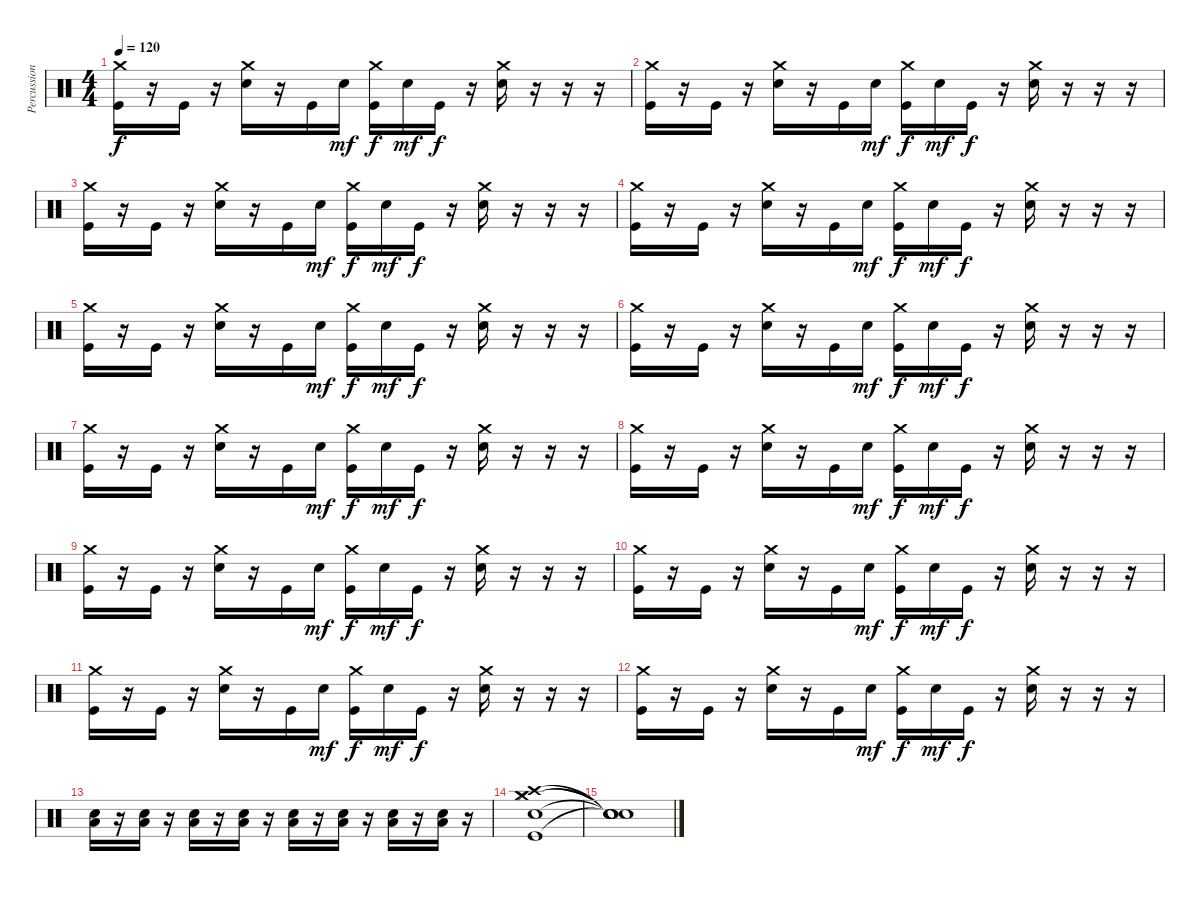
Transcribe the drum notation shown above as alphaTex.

\track ("Percussions" "Percussion") {instrument percussion}
\staff {score}
\articulation defaults
\ts (4 4)
\tempo 120
\clef neutral
\ks c
("Kick (hit)" "Crash medium (hit)").16{dy f} r.16 "Kick (hit)".16 r.16 ("Electric Snare (hit)" "Crash medium (hit)").16 r.16 "Kick (hit)".16 "Electric Snare (hit)".16{dy mf} ("Kick (hit)" "Crash medium (hit)").16{dy f} "Electric Snare (hit)".16{dy mf} "Kick (hit)".16{dy f} r.16 ("Electric Snare (hit)" "Crash medium (hit)").16 r.16 r.16 r.16 |
("Kick (hit)" "Crash medium (hit)").16 r.16 "Kick (hit)".16 r.16 ("Electric Snare (hit)" "Crash medium (hit)").16 r.16 "Kick (hit)".16 "Electric Snare (hit)".16{dy mf} ("Kick (hit)" "Crash medium (hit)").16{dy f} "Electric Snare (hit)".16{dy mf} "Kick (hit)".16{dy f} r.16 ("Electric Snare (hit)" "Crash medium (hit)").16 r.16 r.16 r.16 |
("Kick (hit)" "Crash medium (hit)").16 r.16 "Kick (hit)".16 r.16 ("Electric Snare (hit)" "Crash medium (hit)").16 r.16 "Kick (hit)".16 "Electric Snare (hit)".16{dy mf} ("Kick (hit)" "Crash medium (hit)").16{dy f} "Electric Snare (hit)".16{dy mf} "Kick (hit)".16{dy f} r.16 ("Electric Snare (hit)" "Crash medium (hit)").16 r.16 r.16 r.16 |
("Kick (hit)" "Crash medium (hit)").16 r.16 "Kick (hit)".16 r.16 ("Electric Snare (hit)" "Crash medium (hit)").16 r.16 "Kick (hit)".16 "Electric Snare (hit)".16{dy mf} ("Kick (hit)" "Crash medium (hit)").16{dy f} "Electric Snare (hit)".16{dy mf} "Kick (hit)".16{dy f} r.16 ("Electric Snare (hit)" "Crash medium (hit)").16 r.16 r.16 r.16 |
("Kick (hit)" "Crash medium (hit)").16 r.16 "Kick (hit)".16 r.16 ("Electric Snare (hit)" "Crash medium (hit)").16 r.16 "Kick (hit)".16 "Electric Snare (hit)".16{dy mf} ("Kick (hit)" "Crash medium (hit)").16{dy f} "Electric Snare (hit)".16{dy mf} "Kick (hit)".16{dy f} r.16 ("Electric Snare (hit)" "Crash medium (hit)").16 r.16 r.16 r.16 |
("Kick (hit)" "Crash medium (hit)").16 r.16 "Kick (hit)".16 r.16 ("Electric Snare (hit)" "Crash medium (hit)").16 r.16 "Kick (hit)".16 "Electric Snare (hit)".16{dy mf} ("Kick (hit)" "Crash medium (hit)").16{dy f} "Electric Snare (hit)".16{dy mf} "Kick (hit)".16{dy f} r.16 ("Electric Snare (hit)" "Crash medium (hit)").16 r.16 r.16 r.16 |
("Kick (hit)" "Crash medium (hit)").16 r.16 "Kick (hit)".16 r.16 ("Electric Snare (hit)" "Crash medium (hit)").16 r.16 "Kick (hit)".16 "Electric Snare (hit)".16{dy mf} ("Kick (hit)" "Crash medium (hit)").16{dy f} "Electric Snare (hit)".16{dy mf} "Kick (hit)".16{dy f} r.16 ("Electric Snare (hit)" "Crash medium (hit)").16 r.16 r.16 r.16 |
("Kick (hit)" "Crash medium (hit)").16 r.16 "Kick (hit)".16 r.16 ("Electric Snare (hit)" "Crash medium (hit)").16 r.16 "Kick (hit)".16 "Electric Snare (hit)".16{dy mf} ("Kick (hit)" "Crash medium (hit)").16{dy f} "Electric Snare (hit)".16{dy mf} "Kick (hit)".16{dy f} r.16 ("Electric Snare (hit)" "Crash medium (hit)").16 r.16 r.16 r.16 |
("Kick (hit)" "Crash medium (hit)").16 r.16 "Kick (hit)".16 r.16 ("Electric Snare (hit)" "Crash medium (hit)").16 r.16 "Kick (hit)".16 "Electric Snare (hit)".16{dy mf} ("Kick (hit)" "Crash medium (hit)").16{dy f} "Electric Snare (hit)".16{dy mf} "Kick (hit)".16{dy f} r.16 ("Electric Snare (hit)" "Crash medium (hit)").16 r.16 r.16 r.16 |
("Kick (hit)" "Crash medium (hit)").16 r.16 "Kick (hit)".16 r.16 ("Electric Snare (hit)" "Crash medium (hit)").16 r.16 "Kick (hit)".16 "Electric Snare (hit)".16{dy mf} ("Kick (hit)" "Crash medium (hit)").16{dy f} "Electric Snare (hit)".16{dy mf} "Kick (hit)".16{dy f} r.16 ("Electric Snare (hit)" "Crash medium (hit)").16 r.16 r.16 r.16 |
("Kick (hit)" "Crash medium (hit)").16 r.16 "Kick (hit)".16 r.16 ("Electric Snare (hit)" "Crash medium (hit)").16 r.16 "Kick (hit)".16 "Electric Snare (hit)".16{dy mf} ("Kick (hit)" "Crash medium (hit)").16{dy f} "Electric Snare (hit)".16{dy mf} "Kick (hit)".16{dy f} r.16 ("Electric Snare (hit)" "Crash medium (hit)").16 r.16 r.16 r.16 |
("Kick (hit)" "Crash medium (hit)").16 r.16 "Kick (hit)".16 r.16 ("Electric Snare (hit)" "Crash medium (hit)").16 r.16 "Kick (hit)".16 "Electric Snare (hit)".16{dy mf} ("Kick (hit)" "Crash medium (hit)").16{dy f} "Electric Snare (hit)".16{dy mf} "Kick (hit)".16{dy f} r.16 ("Electric Snare (hit)" "Crash medium (hit)").16 r.16 r.16 r.16 |
("Electric Snare (hit)" "Low Floor Tom (hit)").16 r.16 ("Electric Snare (hit)" "Low Floor Tom (hit)").16 r.16 ("Electric Snare (hit)" "Low Floor Tom (hit)").16 r.16 ("Electric Snare (hit)" "Low Floor Tom (hit)").16 r.16 ("Electric Snare (hit)" "Low Floor Tom (hit)").16 r.16 ("Electric Snare (hit)" "Low Floor Tom (hit)").16 r.16 ("Electric Snare (hit)" "Low Floor Tom (hit)").16 r.16 ("Electric Snare (hit)" "Low Floor Tom (hit)").16 r.16 |
("Crash medium (hit)" "Kick (hit)" "Electric Snare (hit)" "Crash high (hit)" "Hi-Hat (closed)").1 |
("Snare (hit)"{t} "Snare (hit)"{t} "Snare (hit)"{t} "Snare (hit)"{t} "Snare (hit)"{t}).1
